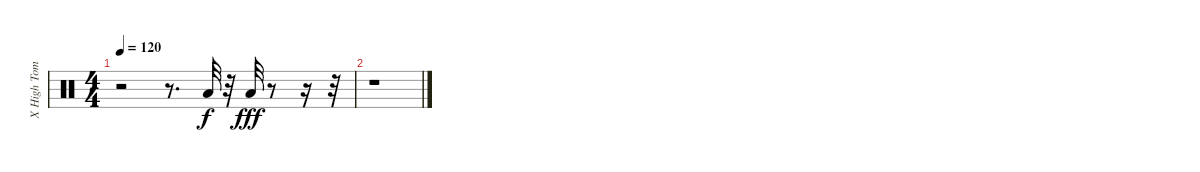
\track ("X High Tom          " "X High Tom") {instrument percussion}
\staff {score}
\articulation defaults
\ts (4 4)
\tempo 120
\clef neutral
\ks c
r.2{dy fff} r.8{d} "Low Tom (hit)".32{dy f} r.32 "Low Tom (hit)".32{dy fff} r.8 r.16 r.32 |
r.1
